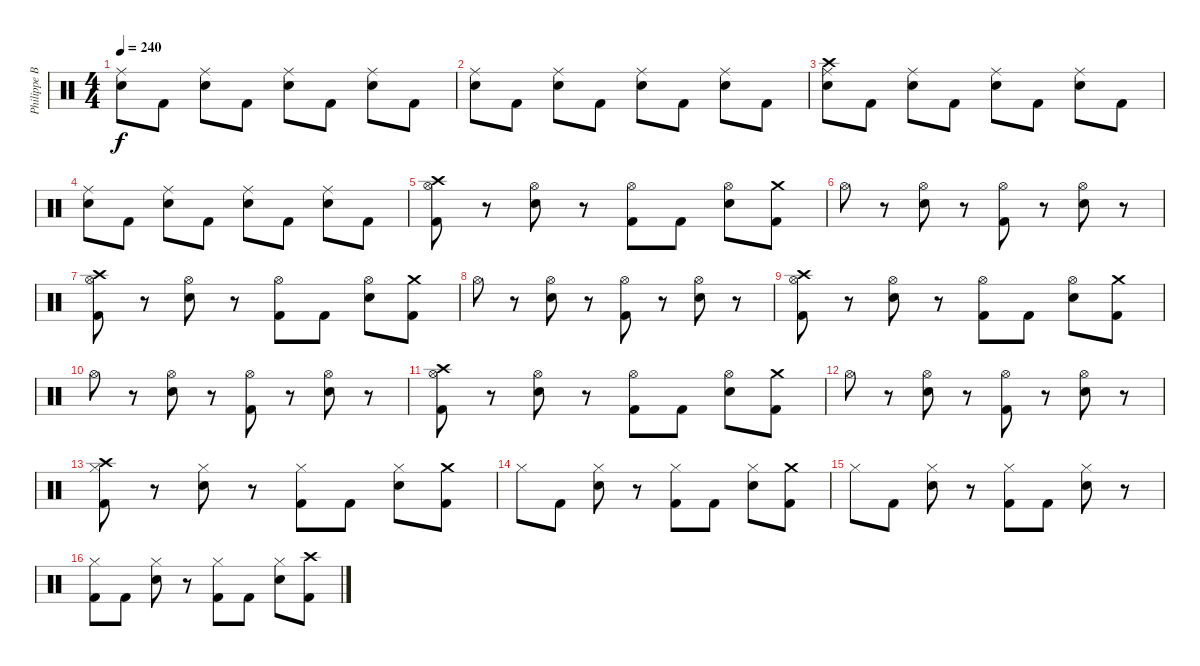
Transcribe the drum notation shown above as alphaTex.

\track ("Philippe Borda" "Philippe B") {instrument percussion}
\staff {score}
\articulation defaults
\ts (4 4)
\tempo 240
\clef neutral
\ks c
("Ride (middle)" "Snare (hit) 2").8{dy f} "Kick (hit) 2".8 ("Ride (middle)" "Snare (hit) 2").8 "Kick (hit) 2".8 ("Ride (middle)" "Snare (hit) 2").8 "Kick (hit) 2".8 ("Ride (middle)" "Snare (hit) 2").8 "Kick (hit) 2".8 |
("Ride (middle)" "Snare (hit) 2").8 "Kick (hit) 2".8 ("Ride (middle)" "Snare (hit) 2").8 "Kick (hit) 2".8 ("Ride (middle)" "Snare (hit) 2").8 "Kick (hit) 2".8 ("Ride (middle)" "Snare (hit) 2").8 "Kick (hit) 2".8 |
("Crash high (hit)" "Ride (middle)" "Snare (hit) 2").8 "Kick (hit) 2".8 ("Ride (middle)" "Snare (hit) 2").8 "Kick (hit) 2".8 ("Ride (middle)" "Snare (hit) 2").8 "Kick (hit) 2".8 ("Ride (middle)" "Snare (hit) 2").8 "Kick (hit) 2".8 |
("Ride (middle)" "Snare (hit) 2").8 "Kick (hit) 2".8 ("Ride (middle)" "Snare (hit) 2").8 "Kick (hit) 2".8 ("Ride (middle)" "Snare (hit) 2").8 "Kick (hit) 2".8 ("Ride (middle)" "Snare (hit) 2").8 "Kick (hit) 2".8 |
("Crash high (hit)" "Hi-Hat (open)" "Kick (hit) 2").8 r.8 ("Hi-Hat (open)" "Snare (hit) 2").8 r.8 ("Hi-Hat (open)" "Kick (hit) 2").8 "Kick (hit) 2".8 ("Hi-Hat (open)" "Snare (hit) 2").8 ("Crash medium (hit)" "Kick (hit) 2").8 |
"Hi-Hat (open)".8 r.8 ("Hi-Hat (open)" "Snare (hit) 2").8 r.8 ("Hi-Hat (open)" "Kick (hit) 2").8 r.8 ("Hi-Hat (open)" "Snare (hit) 2").8 r.8 |
("Crash high (hit)" "Hi-Hat (open)" "Kick (hit) 2").8 r.8 ("Hi-Hat (open)" "Snare (hit) 2").8 r.8 ("Hi-Hat (open)" "Kick (hit) 2").8 "Kick (hit) 2".8 ("Hi-Hat (open)" "Snare (hit) 2").8 ("Crash medium (hit)" "Kick (hit) 2").8 |
"Hi-Hat (open)".8 r.8 ("Hi-Hat (open)" "Snare (hit) 2").8 r.8 ("Hi-Hat (open)" "Kick (hit) 2").8 r.8 ("Hi-Hat (open)" "Snare (hit) 2").8 r.8 |
("Crash high (hit)" "Hi-Hat (open)" "Kick (hit) 2").8 r.8 ("Hi-Hat (open)" "Snare (hit) 2").8 r.8 ("Hi-Hat (open)" "Kick (hit) 2").8 "Kick (hit) 2".8 ("Hi-Hat (open)" "Snare (hit) 2").8 ("Crash medium (hit)" "Kick (hit) 2").8 |
"Hi-Hat (open)".8 r.8 ("Hi-Hat (open)" "Snare (hit) 2").8 r.8 ("Hi-Hat (open)" "Kick (hit) 2").8 r.8 ("Hi-Hat (open)" "Snare (hit) 2").8 r.8 |
("Crash high (hit)" "Hi-Hat (open)" "Kick (hit) 2").8 r.8 ("Hi-Hat (open)" "Snare (hit) 2").8 r.8 ("Hi-Hat (open)" "Kick (hit) 2").8 "Kick (hit) 2".8 ("Hi-Hat (open)" "Snare (hit) 2").8 ("Crash medium (hit)" "Kick (hit) 2").8 |
"Hi-Hat (open)".8 r.8 ("Hi-Hat (open)" "Snare (hit) 2").8 r.8 ("Hi-Hat (open)" "Kick (hit) 2").8 r.8 ("Hi-Hat (open)" "Snare (hit) 2").8 r.8 |
("Crash high (hit)" "Hi-Hat (closed)" "Kick (hit) 2").8 r.8 ("Hi-Hat (closed)" "Snare (hit) 2").8 r.8 ("Hi-Hat (closed)" "Kick (hit) 2").8 "Kick (hit) 2".8 ("Hi-Hat (closed)" "Snare (hit) 2").8 ("Crash medium (hit)" "Kick (hit) 2").8 |
"Hi-Hat (closed)".8 "Kick (hit) 2".8 ("Hi-Hat (closed)" "Snare (hit) 2").8 r.8 ("Hi-Hat (closed)" "Kick (hit) 2").8 "Kick (hit) 2".8 ("Hi-Hat (closed)" "Snare (hit) 2").8 ("Crash medium (hit)" "Kick (hit) 2").8 |
"Hi-Hat (closed)".8 "Kick (hit) 2".8 ("Hi-Hat (closed)" "Snare (hit) 2").8 r.8 ("Hi-Hat (closed)" "Kick (hit) 2").8 "Kick (hit) 2".8 ("Hi-Hat (closed)" "Snare (hit) 2").8 r.8 |
("Hi-Hat (closed)" "Kick (hit) 2").8 "Kick (hit) 2".8 ("Hi-Hat (closed)" "Snare (hit) 2").8 r.8 ("Hi-Hat (closed)" "Kick (hit) 2").8 "Kick (hit) 2".8 ("Hi-Hat (closed)" "Snare (hit) 2").8 ("Crash high (hit)" "Kick (hit) 2").8
